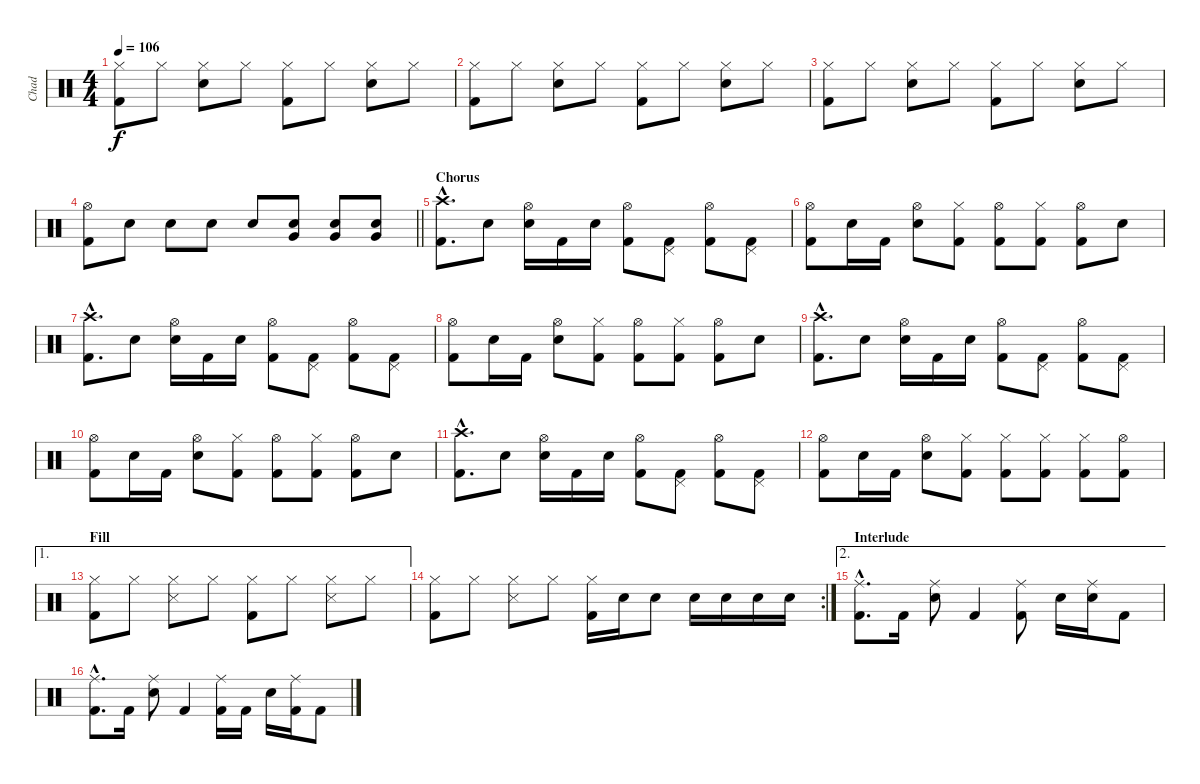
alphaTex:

\track ("Chad" "Chad") {instrument percussion}
\staff {score}
\articulation defaults
\ts (4 4)
\tempo 106
\clef neutral
\ks c
("Hi-Hat (closed)" "Kick (hit) 2").8{dy f} "Hi-Hat (closed)".8 ("Snare (hit) 2" "Hi-Hat (closed)").8 "Hi-Hat (closed)".8 ("Hi-Hat (closed)" "Kick (hit) 2").8 "Hi-Hat (closed)".8 ("Snare (hit) 2" "Hi-Hat (closed)").8 "Hi-Hat (closed)".8 |
("Hi-Hat (closed)" "Kick (hit) 2").8 "Hi-Hat (closed)".8 ("Snare (hit) 2" "Hi-Hat (closed)").8 "Hi-Hat (closed)".8 ("Hi-Hat (closed)" "Kick (hit) 2").8 "Hi-Hat (closed)".8 ("Snare (hit) 2" "Hi-Hat (closed)").8 "Hi-Hat (closed)".8 |
("Hi-Hat (closed)" "Kick (hit) 2").8 "Hi-Hat (closed)".8 ("Snare (hit) 2" "Hi-Hat (closed)").8 "Hi-Hat (closed)".8 ("Hi-Hat (closed)" "Kick (hit) 2").8 "Hi-Hat (closed)".8 ("Snare (hit) 2" "Hi-Hat (closed)").8 "Hi-Hat (closed)".8 |
\barLineRight lightlight
("Hi-Hat (open)" "Kick (hit) 2").8 "Electric Snare (hit)".8 "Electric Snare (hit)".8 "Electric Snare (hit)".8 "Electric Snare (hit)".8 ("Electric Snare (hit)" "Very Low Tom (hit)").8 ("Electric Snare (hit)" "Very Low Tom (hit)").8 ("Electric Snare (hit)" "Very Low Tom (hit)").8 |
\section ("" "Chorus")
("Crash high (hit)"{hac} "Kick (hit) 2"{hac}).8{d} "Electric Snare (hit)".8 ("Hi-Hat (open)" "Electric Snare (hit)").16 "Kick (hit) 2".16 "Electric Snare (hit)".16 ("Hi-Hat (open)" "Kick (hit) 2").8 ("Pedal Hi-Hat (hit)" "Kick (hit) 2").8 ("Hi-Hat (open)" "Kick (hit) 2").8 ("Pedal Hi-Hat (hit)" "Kick (hit) 2").8 |
("Hi-Hat (open)" "Kick (hit) 2").8 "Electric Snare (hit)".16 "Kick (hit) 2".16 ("Hi-Hat (open)" "Electric Snare (hit)").8 ("Hi-Hat (closed)" "Kick (hit) 2").8 ("Hi-Hat (open)" "Kick (hit) 2").8 ("Hi-Hat (closed)" "Kick (hit) 2").8 ("Hi-Hat (open)" "Kick (hit) 2").8 "Electric Snare (hit)".8 |
("Crash high (hit)"{hac} "Kick (hit) 2"{hac}).8{d} "Electric Snare (hit)".8 ("Hi-Hat (open)" "Electric Snare (hit)").16 "Kick (hit) 2".16 "Electric Snare (hit)".16 ("Hi-Hat (open)" "Kick (hit) 2").8 ("Pedal Hi-Hat (hit)" "Kick (hit) 2").8 ("Hi-Hat (open)" "Kick (hit) 2").8 ("Pedal Hi-Hat (hit)" "Kick (hit) 2").8 |
("Hi-Hat (open)" "Kick (hit) 2").8 "Electric Snare (hit)".16 "Kick (hit) 2".16 ("Hi-Hat (open)" "Electric Snare (hit)").8 ("Hi-Hat (closed)" "Kick (hit) 2").8 ("Hi-Hat (open)" "Kick (hit) 2").8 ("Hi-Hat (closed)" "Kick (hit) 2").8 ("Hi-Hat (open)" "Kick (hit) 2").8 "Electric Snare (hit)".8 |
("Crash high (hit)"{hac} "Kick (hit) 2"{hac}).8{d} "Electric Snare (hit)".8 ("Hi-Hat (open)" "Electric Snare (hit)").16 "Kick (hit) 2".16 "Electric Snare (hit)".16 ("Hi-Hat (open)" "Kick (hit) 2").8 ("Pedal Hi-Hat (hit)" "Kick (hit) 2").8 ("Hi-Hat (open)" "Kick (hit) 2").8 ("Pedal Hi-Hat (hit)" "Kick (hit) 2").8 |
("Hi-Hat (open)" "Kick (hit) 2").8 "Electric Snare (hit)".16 "Kick (hit) 2".16 ("Hi-Hat (open)" "Electric Snare (hit)").8 ("Hi-Hat (closed)" "Kick (hit) 2").8 ("Hi-Hat (open)" "Kick (hit) 2").8 ("Hi-Hat (closed)" "Kick (hit) 2").8 ("Hi-Hat (open)" "Kick (hit) 2").8 "Electric Snare (hit)".8 |
("Crash high (hit)"{hac} "Kick (hit) 2"{hac}).8{d} "Electric Snare (hit)".8 ("Hi-Hat (open)" "Electric Snare (hit)").16 "Kick (hit) 2".16 "Electric Snare (hit)".16 ("Hi-Hat (open)" "Kick (hit) 2").8 ("Pedal Hi-Hat (hit)" "Kick (hit) 2").8 ("Hi-Hat (open)" "Kick (hit) 2").8 ("Pedal Hi-Hat (hit)" "Kick (hit) 2").8 |
("Hi-Hat (open)" "Kick (hit) 2").8 "Electric Snare (hit)".16 "Kick (hit) 2".16 ("Hi-Hat (open)" "Electric Snare (hit)").8 ("Hi-Hat (closed)" "Kick (hit) 2").8 ("Hi-Hat (closed)" "Kick (hit) 2").8 ("Hi-Hat (closed)" "Kick (hit) 2").8 ("Hi-Hat (closed)" "Kick (hit) 2").8 ("Hi-Hat (open)" "Kick (hit) 2").8 |
\ae 1
\section ("" "Fill")
("Hi-Hat (closed)" "Kick (hit) 2").8 "Hi-Hat (closed)".8 ("Hi-Hat (closed)" "Snare (side stick) 3").8 "Hi-Hat (closed)".8 ("Hi-Hat (closed)" "Kick (hit) 2").8 "Hi-Hat (closed)".8 ("Hi-Hat (closed)" "Snare (side stick) 3").8 "Hi-Hat (closed)".8 |
\rc 2
("Hi-Hat (closed)" "Kick (hit) 2").8 "Hi-Hat (closed)".8 ("Hi-Hat (closed)" "Snare (side stick) 3").8 "Hi-Hat (closed)".8 ("Hi-Hat (closed)" "Kick (hit) 2").16 "Electric Snare (hit)".16 "Electric Snare (hit)".8 "Electric Snare (hit)".16 "Electric Snare (hit)".16 "Electric Snare (hit)".16 "Electric Snare (hit)".16 |
\ae 2
\section ("" "Interlude")
("Ride (middle)"{hac} "Kick (hit) 2"{hac}).8{d} "Kick (hit) 2".16 ("Electric Snare (hit)" "Ride (middle)").8 "Kick (hit) 2".4 ("Ride (middle)" "Kick (hit) 2").8 "Electric Snare (hit)".16 ("Electric Snare (hit)" "Ride (middle)").16 "Kick (hit) 2".8 |
("Ride (middle)"{hac} "Kick (hit) 2"{hac}).8{d} "Kick (hit) 2".16 ("Electric Snare (hit)" "Ride (middle)").8 "Kick (hit) 2".4 ("Ride (middle)" "Kick (hit) 2").16 "Kick (hit) 2".16 "Electric Snare (hit)".16 ("Ride (middle)" "Kick (hit) 2").16 "Kick (hit) 2".8
